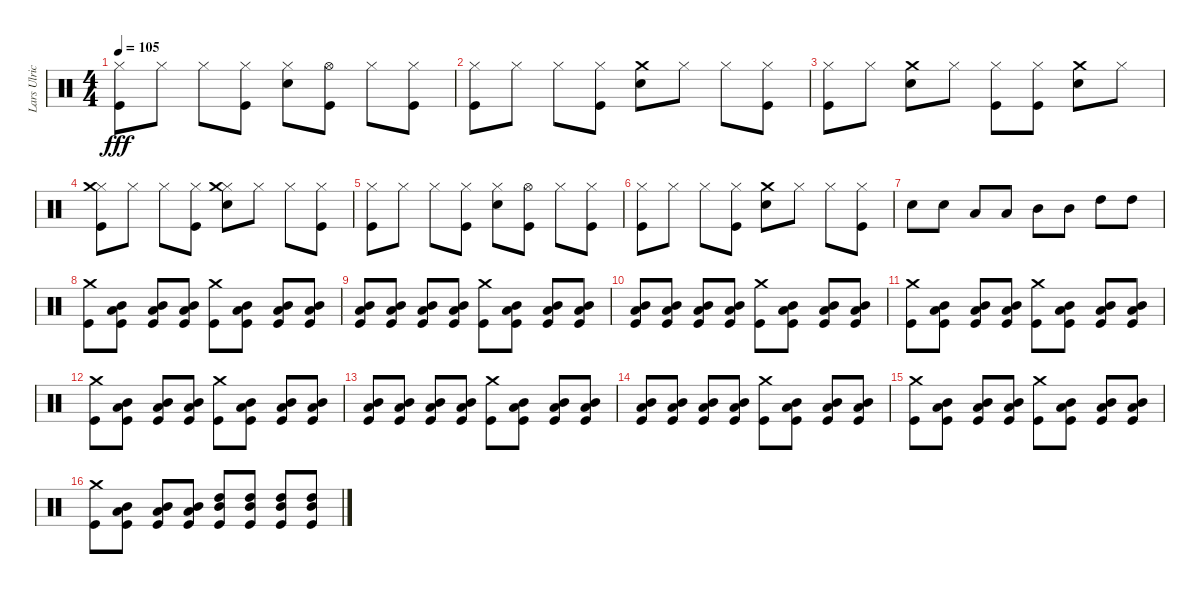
\track ("Lars Ulrich" "Lars Ulric") {instrument percussion}
\staff {score}
\articulation defaults
\ts (4 4)
\tempo 105
\clef neutral
\ks c
("Kick (hit)" "Hi-Hat (closed)").8{dy fff} "Hi-Hat (closed)".8 "Hi-Hat (closed)".8 ("Kick (hit)" "Hi-Hat (closed)").8 ("Snare (hit) 2" "Hi-Hat (closed)").8 ("Kick (hit)" "Hi-Hat (open)").8 "Hi-Hat (closed)".8 ("Kick (hit)" "Hi-Hat (closed)").8 |
("Hi-Hat (closed)" "Kick (hit)").8 "Hi-Hat (closed)".8 "Hi-Hat (closed)".8 ("Kick (hit)" "Hi-Hat (closed)").8 ("Snare (hit) 2" "Crash medium (hit)").8 "Hi-Hat (closed)".8 "Hi-Hat (closed)".8 ("Kick (hit)" "Hi-Hat (closed)").8 |
("Kick (hit)" "Hi-Hat (closed)").8 "Hi-Hat (closed)".8 ("Snare (hit) 2" "Crash medium (hit)").8 "Hi-Hat (closed)".8 ("Kick (hit)" "Hi-Hat (closed)").8 ("Hi-Hat (closed)" "Kick (hit)").8 ("Snare (hit) 2" "Crash medium (hit)").8 "Hi-Hat (closed)".8 |
("Hi-Hat (closed)" "Kick (hit)" "Crash medium (hit)").8 "Hi-Hat (closed)".8 "Hi-Hat (closed)".8 ("Hi-Hat (closed)" "Kick (hit)").8 ("Hi-Hat (closed)" "Crash medium (hit)" "Snare (hit) 2").8 "Hi-Hat (closed)".8 "Hi-Hat (closed)".8 ("Kick (hit)" "Hi-Hat (closed)").8 |
("Kick (hit)" "Hi-Hat (closed)").8 "Hi-Hat (closed)".8 "Hi-Hat (closed)".8 ("Hi-Hat (closed)" "Kick (hit)").8 ("Snare (hit) 2" "Hi-Hat (closed)").8 ("Kick (hit)" "Hi-Hat (open)").8 "Hi-Hat (closed)".8 ("Kick (hit)" "Hi-Hat (closed)").8 |
("Kick (hit)" "Hi-Hat (closed)").8 "Hi-Hat (closed)".8 "Hi-Hat (closed)".8 ("Hi-Hat (closed)" "Kick (hit)").8 ("Crash medium (hit)" "Snare (hit) 2").8 "Hi-Hat (closed)".8 "Hi-Hat (closed)".8 ("Kick (hit)" "Hi-Hat (closed)").8 |
"Snare (hit) 2".8 "Snare (hit) 2".8 "Low Tom (hit)".8 "Low Tom (hit)".8 "Mid Tom (hit)".8 "Mid Tom (hit)".8 "High Tom (hit)".8 "High Tom (hit)".8 |
("Kick (hit)" "Crash medium (hit)").8{volume 11} ("Kick (hit)" "Low Tom (hit)" "Mid Tom (hit)").8 ("Kick (hit)" "Mid Tom (hit)" "Low Tom (hit)").8 ("Kick (hit)" "Mid Tom (hit)" "Low Tom (hit)").8 ("Crash medium (hit)" "Kick (hit)").8 ("Low Tom (hit)" "Kick (hit)" "Mid Tom (hit)").8 ("Kick (hit)" "Mid Tom (hit)" "Low Tom (hit)").8 ("Kick (hit)" "Mid Tom (hit)" "Low Tom (hit)").8 |
("Kick (hit)" "Mid Tom (hit)" "Low Tom (hit)").8 ("Mid Tom (hit)" "Kick (hit)" "Low Tom (hit)").8 ("Kick (hit)" "Mid Tom (hit)" "Low Tom (hit)").8 ("Kick (hit)" "Mid Tom (hit)" "Low Tom (hit)").8 ("Kick (hit)" "Crash medium (hit)").8 ("Kick (hit)" "Mid Tom (hit)" "Low Tom (hit)").8 ("Low Tom (hit)" "Mid Tom (hit)" "Kick (hit)").8 ("Kick (hit)" "Mid Tom (hit)" "Low Tom (hit)").8 |
("Kick (hit)" "Mid Tom (hit)" "Low Tom (hit)").8 ("Kick (hit)" "Mid Tom (hit)" "Low Tom (hit)").8 ("Low Tom (hit)" "Kick (hit)" "Mid Tom (hit)").8 ("Low Tom (hit)" "Kick (hit)" "Mid Tom (hit)").8 ("Crash medium (hit)" "Kick (hit)").8 ("Mid Tom (hit)" "Low Tom (hit)" "Kick (hit)").8 ("Mid Tom (hit)" "Low Tom (hit)" "Kick (hit)").8 ("Low Tom (hit)" "Mid Tom (hit)" "Kick (hit)").8 |
("Crash medium (hit)" "Kick (hit)").8 ("Kick (hit)" "Low Tom (hit)" "Mid Tom (hit)").8 ("Kick (hit)" "Low Tom (hit)" "Mid Tom (hit)").8 ("Kick (hit)" "Low Tom (hit)" "Mid Tom (hit)").8 ("Crash medium (hit)" "Kick (hit)").8 ("Low Tom (hit)" "Mid Tom (hit)" "Kick (hit)").8 ("Low Tom (hit)" "Mid Tom (hit)" "Kick (hit)").8 ("Low Tom (hit)" "Mid Tom (hit)" "Kick (hit)").8 |
("Kick (hit)" "Crash medium (hit)").8{volume 11} ("Kick (hit)" "Low Tom (hit)" "Mid Tom (hit)").8 ("Kick (hit)" "Mid Tom (hit)" "Low Tom (hit)").8 ("Kick (hit)" "Mid Tom (hit)" "Low Tom (hit)").8 ("Crash medium (hit)" "Kick (hit)").8 ("Low Tom (hit)" "Kick (hit)" "Mid Tom (hit)").8 ("Kick (hit)" "Mid Tom (hit)" "Low Tom (hit)").8 ("Kick (hit)" "Mid Tom (hit)" "Low Tom (hit)").8 |
("Kick (hit)" "Mid Tom (hit)" "Low Tom (hit)").8 ("Mid Tom (hit)" "Kick (hit)" "Low Tom (hit)").8 ("Kick (hit)" "Mid Tom (hit)" "Low Tom (hit)").8 ("Kick (hit)" "Mid Tom (hit)" "Low Tom (hit)").8 ("Kick (hit)" "Crash medium (hit)").8 ("Kick (hit)" "Mid Tom (hit)" "Low Tom (hit)").8 ("Low Tom (hit)" "Mid Tom (hit)" "Kick (hit)").8 ("Kick (hit)" "Mid Tom (hit)" "Low Tom (hit)").8 |
("Kick (hit)" "Mid Tom (hit)" "Low Tom (hit)").8 ("Kick (hit)" "Mid Tom (hit)" "Low Tom (hit)").8 ("Low Tom (hit)" "Kick (hit)" "Mid Tom (hit)").8 ("Low Tom (hit)" "Kick (hit)" "Mid Tom (hit)").8 ("Crash medium (hit)" "Kick (hit)").8 ("Mid Tom (hit)" "Low Tom (hit)" "Kick (hit)").8 ("Mid Tom (hit)" "Low Tom (hit)" "Kick (hit)").8 ("Low Tom (hit)" "Mid Tom (hit)" "Kick (hit)").8 |
("Crash medium (hit)" "Kick (hit)").8 ("Kick (hit)" "Low Tom (hit)" "Mid Tom (hit)").8 ("Kick (hit)" "Low Tom (hit)" "Mid Tom (hit)").8 ("Kick (hit)" "Low Tom (hit)" "Mid Tom (hit)").8 ("Crash medium (hit)" "Kick (hit)").8 ("Low Tom (hit)" "Mid Tom (hit)" "Kick (hit)").8 ("Low Tom (hit)" "Mid Tom (hit)" "Kick (hit)").8 ("Low Tom (hit)" "Mid Tom (hit)" "Kick (hit)").8 |
("Kick (hit)" "Crash medium (hit)").8 ("Kick (hit)" "Low Tom (hit)" "Mid Tom (hit)").8 ("Low Tom (hit)" "Kick (hit)" "Mid Tom (hit)").8 ("Kick (hit)" "Low Tom (hit)" "Mid Tom (hit)").8 ("High Tom (hit)" "Mid Tom (hit)" "Kick (hit)").8 ("High Tom (hit)" "Mid Tom (hit)" "Kick (hit)").8 ("Mid Tom (hit)" "High Tom (hit)" "Kick (hit)").8 ("Kick (hit)" "High Tom (hit)" "Mid Tom (hit)").8
